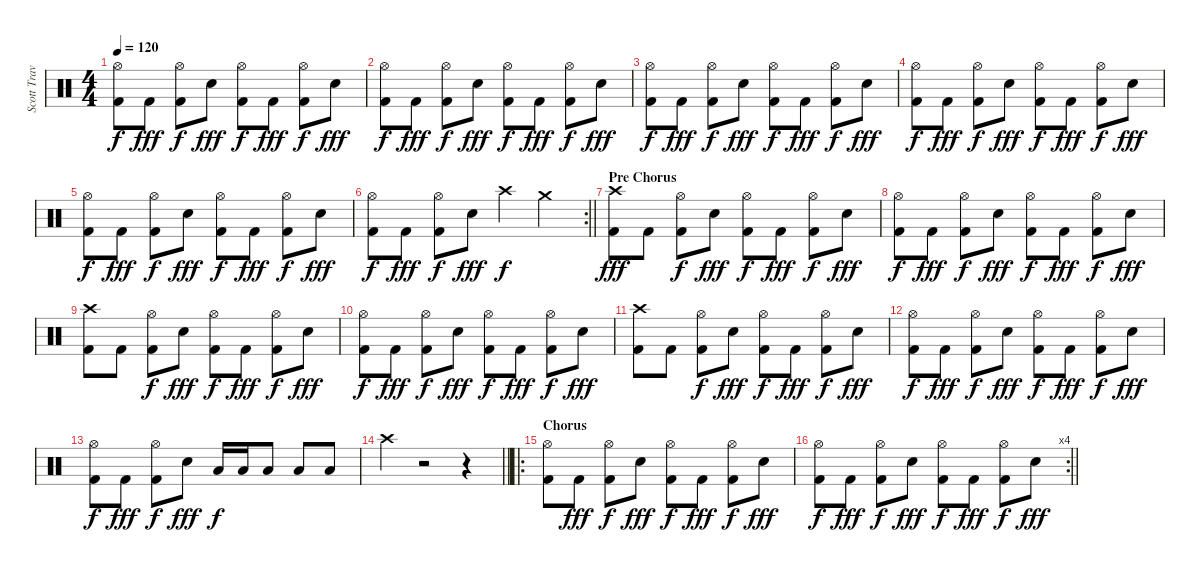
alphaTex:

\track ("Scott Travis" "Scott Trav") {instrument percussion}
\staff {score}
\articulation defaults
\ts (4 4)
\tempo 120
\clef neutral
\ks c
("Hi-Hat (open)" "Kick (hit) 2").8{dy f} "Kick (hit) 2".8{dy fff} ("Hi-Hat (open)" "Kick (hit) 2").8{dy f} "Electric Snare (hit)".8{dy fff} ("Hi-Hat (open)" "Kick (hit) 2").8{dy f} "Kick (hit) 2".8{dy fff} ("Hi-Hat (open)" "Kick (hit) 2").8{dy f} "Electric Snare (hit)".8{dy fff} |
("Hi-Hat (open)" "Kick (hit) 2").8{dy f} "Kick (hit) 2".8{dy fff} ("Hi-Hat (open)" "Kick (hit) 2").8{dy f} "Electric Snare (hit)".8{dy fff} ("Hi-Hat (open)" "Kick (hit) 2").8{dy f} "Kick (hit) 2".8{dy fff} ("Hi-Hat (open)" "Kick (hit) 2").8{dy f} "Electric Snare (hit)".8{dy fff} |
("Hi-Hat (open)" "Kick (hit) 2").8{dy f} "Kick (hit) 2".8{dy fff} ("Hi-Hat (open)" "Kick (hit) 2").8{dy f} "Electric Snare (hit)".8{dy fff} ("Hi-Hat (open)" "Kick (hit) 2").8{dy f} "Kick (hit) 2".8{dy fff} ("Hi-Hat (open)" "Kick (hit) 2").8{dy f} "Electric Snare (hit)".8{dy fff} |
("Hi-Hat (open)" "Kick (hit) 2").8{dy f} "Kick (hit) 2".8{dy fff} ("Hi-Hat (open)" "Kick (hit) 2").8{dy f} "Electric Snare (hit)".8{dy fff} ("Hi-Hat (open)" "Kick (hit) 2").8{dy f} "Kick (hit) 2".8{dy fff} ("Hi-Hat (open)" "Kick (hit) 2").8{dy f} "Electric Snare (hit)".8{dy fff} |
("Hi-Hat (open)" "Kick (hit) 2").8{dy f} "Kick (hit) 2".8{dy fff} ("Hi-Hat (open)" "Kick (hit) 2").8{dy f} "Electric Snare (hit)".8{dy fff} ("Hi-Hat (open)" "Kick (hit) 2").8{dy f} "Kick (hit) 2".8{dy fff} ("Hi-Hat (open)" "Kick (hit) 2").8{dy f} "Electric Snare (hit)".8{dy fff} |
\rc 2
\barLineRight lightlight
("Hi-Hat (open)" "Kick (hit) 2").8{dy f} "Kick (hit) 2".8{dy fff} ("Hi-Hat (open)" "Kick (hit) 2").8{dy f} "Electric Snare (hit)".8{dy fff} "Crash high (hit)".4{dy f} "Crash medium (hit)".4 |
\section ("" "Pre Chorus")
("Crash high (hit)" "Kick (hit) 2").8{dy fff} "Kick (hit) 2".8 ("Hi-Hat (open)" "Kick (hit) 2").8{dy f} "Electric Snare (hit)".8{dy fff} ("Hi-Hat (open)" "Kick (hit) 2").8{dy f} "Kick (hit) 2".8{dy fff} ("Hi-Hat (open)" "Kick (hit) 2").8{dy f} "Electric Snare (hit)".8{dy fff} |
("Hi-Hat (open)" "Kick (hit) 2").8{dy f} "Kick (hit) 2".8{dy fff} ("Hi-Hat (open)" "Kick (hit) 2").8{dy f} "Electric Snare (hit)".8{dy fff} ("Hi-Hat (open)" "Kick (hit) 2").8{dy f} "Kick (hit) 2".8{dy fff} ("Hi-Hat (open)" "Kick (hit) 2").8{dy f} "Electric Snare (hit)".8{dy fff} |
("Crash high (hit)" "Kick (hit) 2").8 "Kick (hit) 2".8 ("Hi-Hat (open)" "Kick (hit) 2").8{dy f} "Electric Snare (hit)".8{dy fff} ("Hi-Hat (open)" "Kick (hit) 2").8{dy f} "Kick (hit) 2".8{dy fff} ("Hi-Hat (open)" "Kick (hit) 2").8{dy f} "Electric Snare (hit)".8{dy fff} |
("Hi-Hat (open)" "Kick (hit) 2").8{dy f} "Kick (hit) 2".8{dy fff} ("Hi-Hat (open)" "Kick (hit) 2").8{dy f} "Electric Snare (hit)".8{dy fff} ("Hi-Hat (open)" "Kick (hit) 2").8{dy f} "Kick (hit) 2".8{dy fff} ("Hi-Hat (open)" "Kick (hit) 2").8{dy f} "Electric Snare (hit)".8{dy fff} |
("Crash high (hit)" "Kick (hit) 2").8 "Kick (hit) 2".8 ("Hi-Hat (open)" "Kick (hit) 2").8{dy f} "Electric Snare (hit)".8{dy fff} ("Hi-Hat (open)" "Kick (hit) 2").8{dy f} "Kick (hit) 2".8{dy fff} ("Hi-Hat (open)" "Kick (hit) 2").8{dy f} "Electric Snare (hit)".8{dy fff} |
("Hi-Hat (open)" "Kick (hit) 2").8{dy f} "Kick (hit) 2".8{dy fff} ("Hi-Hat (open)" "Kick (hit) 2").8{dy f} "Electric Snare (hit)".8{dy fff} ("Hi-Hat (open)" "Kick (hit) 2").8{dy f} "Kick (hit) 2".8{dy fff} ("Hi-Hat (open)" "Kick (hit) 2").8{dy f} "Electric Snare (hit)".8{dy fff} |
("Hi-Hat (open)" "Kick (hit) 2").8{dy f} "Kick (hit) 2".8{dy fff} ("Hi-Hat (open)" "Kick (hit) 2").8{dy f} "Electric Snare (hit)".8{dy fff} "Low Tom (hit)".16{dy f} "Low Tom (hit)".16 "Low Tom (hit)".8 "Low Tom (hit)".8 "Low Tom (hit)".8 |
\barLineRight lightlight "Crash high (hit)".4
r.2 r.4 |
\ro
\section ("" "Chorus")
("Hi-Hat (open)" "Kick (hit) 2").8 "Kick (hit) 2".8{dy fff} ("Hi-Hat (open)" "Kick (hit) 2").8{dy f} "Electric Snare (hit)".8{dy fff} ("Hi-Hat (open)" "Kick (hit) 2").8{dy f} "Kick (hit) 2".8{dy fff} ("Hi-Hat (open)" "Kick (hit) 2").8{dy f} "Electric Snare (hit)".8{dy fff} |
\rc 4
\barLineRight lightlight
("Hi-Hat (open)" "Kick (hit) 2").8{dy f} "Kick (hit) 2".8{dy fff} ("Hi-Hat (open)" "Kick (hit) 2").8{dy f} "Electric Snare (hit)".8{dy fff} ("Hi-Hat (open)" "Kick (hit) 2").8{dy f} "Kick (hit) 2".8{dy fff} ("Hi-Hat (open)" "Kick (hit) 2").8{dy f} "Electric Snare (hit)".8{dy fff}
